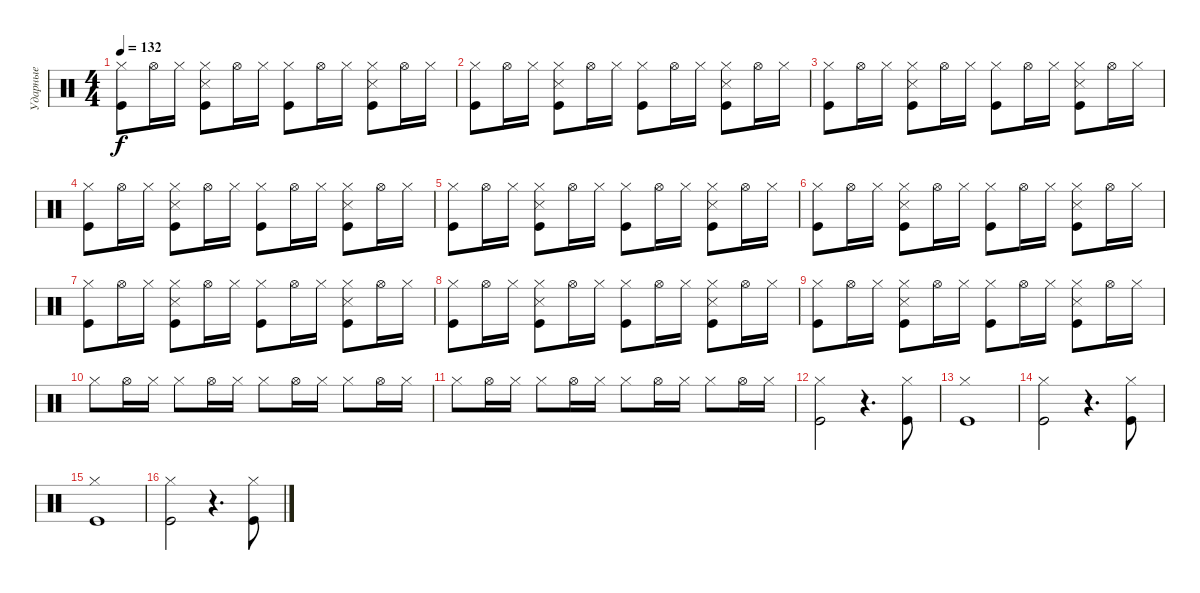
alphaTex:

\track ("Ударные" "Ударные") {instrument percussion}
\staff {score}
\articulation defaults
\ts (4 4)
\tempo 132
\clef neutral
\ks c
("Kick (hit)" "Hi-Hat (closed)").8{dy f} "Hi-Hat (open)".16 "Hi-Hat (closed)".16 ("Hi-Hat (closed)" "Kick (hit)" "Snare (side stick) 3").8 "Hi-Hat (open)".16 "Hi-Hat (closed)".16 ("Kick (hit)" "Hi-Hat (closed)").8 "Hi-Hat (open)".16 "Hi-Hat (closed)".16 ("Hi-Hat (closed)" "Kick (hit)" "Snare (side stick) 3").8 "Hi-Hat (open)".16 "Hi-Hat (closed)".16 |
("Kick (hit)" "Hi-Hat (closed)").8 "Hi-Hat (open)".16 "Hi-Hat (closed)".16 ("Hi-Hat (closed)" "Kick (hit)" "Snare (side stick) 3").8 "Hi-Hat (open)".16 "Hi-Hat (closed)".16 ("Kick (hit)" "Hi-Hat (closed)").8 "Hi-Hat (open)".16 "Hi-Hat (closed)".16 ("Hi-Hat (closed)" "Kick (hit)" "Snare (side stick) 3").8 "Hi-Hat (open)".16 "Hi-Hat (closed)".16 |
("Kick (hit)" "Hi-Hat (closed)").8 "Hi-Hat (open)".16 "Hi-Hat (closed)".16 ("Hi-Hat (closed)" "Kick (hit)" "Snare (side stick) 3").8 "Hi-Hat (open)".16 "Hi-Hat (closed)".16 ("Kick (hit)" "Hi-Hat (closed)").8 "Hi-Hat (open)".16 "Hi-Hat (closed)".16 ("Hi-Hat (closed)" "Kick (hit)" "Snare (side stick) 3").8 "Hi-Hat (open)".16 "Hi-Hat (closed)".16 |
("Kick (hit)" "Hi-Hat (closed)").8 "Hi-Hat (open)".16 "Hi-Hat (closed)".16 ("Hi-Hat (closed)" "Kick (hit)" "Snare (side stick) 3").8 "Hi-Hat (open)".16 "Hi-Hat (closed)".16 ("Kick (hit)" "Hi-Hat (closed)").8 "Hi-Hat (open)".16 "Hi-Hat (closed)".16 ("Hi-Hat (closed)" "Kick (hit)" "Snare (side stick) 3").8 "Hi-Hat (open)".16 "Hi-Hat (closed)".16 |
("Kick (hit)" "Hi-Hat (closed)").8 "Hi-Hat (open)".16 "Hi-Hat (closed)".16 ("Hi-Hat (closed)" "Kick (hit)" "Snare (side stick) 3").8 "Hi-Hat (open)".16 "Hi-Hat (closed)".16 ("Kick (hit)" "Hi-Hat (closed)").8 "Hi-Hat (open)".16 "Hi-Hat (closed)".16 ("Hi-Hat (closed)" "Kick (hit)" "Snare (side stick) 3").8 "Hi-Hat (open)".16 "Hi-Hat (closed)".16 |
("Kick (hit)" "Hi-Hat (closed)").8 "Hi-Hat (open)".16 "Hi-Hat (closed)".16 ("Hi-Hat (closed)" "Kick (hit)" "Snare (side stick) 3").8 "Hi-Hat (open)".16 "Hi-Hat (closed)".16 ("Kick (hit)" "Hi-Hat (closed)").8 "Hi-Hat (open)".16 "Hi-Hat (closed)".16 ("Hi-Hat (closed)" "Kick (hit)" "Snare (side stick) 3").8 "Hi-Hat (open)".16 "Hi-Hat (closed)".16 |
("Kick (hit)" "Hi-Hat (closed)").8 "Hi-Hat (open)".16 "Hi-Hat (closed)".16 ("Hi-Hat (closed)" "Kick (hit)" "Snare (side stick) 3").8 "Hi-Hat (open)".16 "Hi-Hat (closed)".16 ("Kick (hit)" "Hi-Hat (closed)").8 "Hi-Hat (open)".16 "Hi-Hat (closed)".16 ("Hi-Hat (closed)" "Kick (hit)" "Snare (side stick) 3").8 "Hi-Hat (open)".16 "Hi-Hat (closed)".16 |
("Kick (hit)" "Hi-Hat (closed)").8 "Hi-Hat (open)".16 "Hi-Hat (closed)".16 ("Hi-Hat (closed)" "Kick (hit)" "Snare (side stick) 3").8 "Hi-Hat (open)".16 "Hi-Hat (closed)".16 ("Kick (hit)" "Hi-Hat (closed)").8 "Hi-Hat (open)".16 "Hi-Hat (closed)".16 ("Hi-Hat (closed)" "Kick (hit)" "Snare (side stick) 3").8 "Hi-Hat (open)".16 "Hi-Hat (closed)".16 |
("Kick (hit)" "Hi-Hat (closed)").8 "Hi-Hat (open)".16 "Hi-Hat (closed)".16 ("Hi-Hat (closed)" "Kick (hit)" "Snare (side stick) 3").8 "Hi-Hat (open)".16 "Hi-Hat (closed)".16 ("Kick (hit)" "Hi-Hat (closed)").8 "Hi-Hat (open)".16 "Hi-Hat (closed)".16 ("Hi-Hat (closed)" "Kick (hit)" "Snare (side stick) 3").8 "Hi-Hat (open)".16 "Hi-Hat (closed)".16 |
"Hi-Hat (closed)".8 "Hi-Hat (open)".16 "Hi-Hat (closed)".16 "Hi-Hat (closed)".8 "Hi-Hat (open)".16 "Hi-Hat (closed)".16 "Hi-Hat (closed)".8 "Hi-Hat (open)".16 "Hi-Hat (closed)".16 "Hi-Hat (closed)".8 "Hi-Hat (open)".16 "Hi-Hat (closed)".16 |
"Hi-Hat (closed)".8 "Hi-Hat (open)".16 "Hi-Hat (closed)".16 "Hi-Hat (closed)".8 "Hi-Hat (open)".16 "Hi-Hat (closed)".16 "Hi-Hat (closed)".8 "Hi-Hat (open)".16 "Hi-Hat (closed)".16 "Hi-Hat (closed)".8 "Hi-Hat (open)".16 "Hi-Hat (closed)".16 |
("Hi-Hat (closed)" "Kick (hit)").2 r.4{d} ("Hi-Hat (closed)" "Kick (hit)").8 |
("Hi-Hat (closed)" "Kick (hit)").1 |
("Hi-Hat (closed)" "Kick (hit)").2 r.4{d} ("Hi-Hat (closed)" "Kick (hit)").8 |
("Hi-Hat (closed)" "Kick (hit)").1 |
("Hi-Hat (closed)" "Kick (hit)").2 r.4{d} ("Hi-Hat (closed)" "Kick (hit)").8
